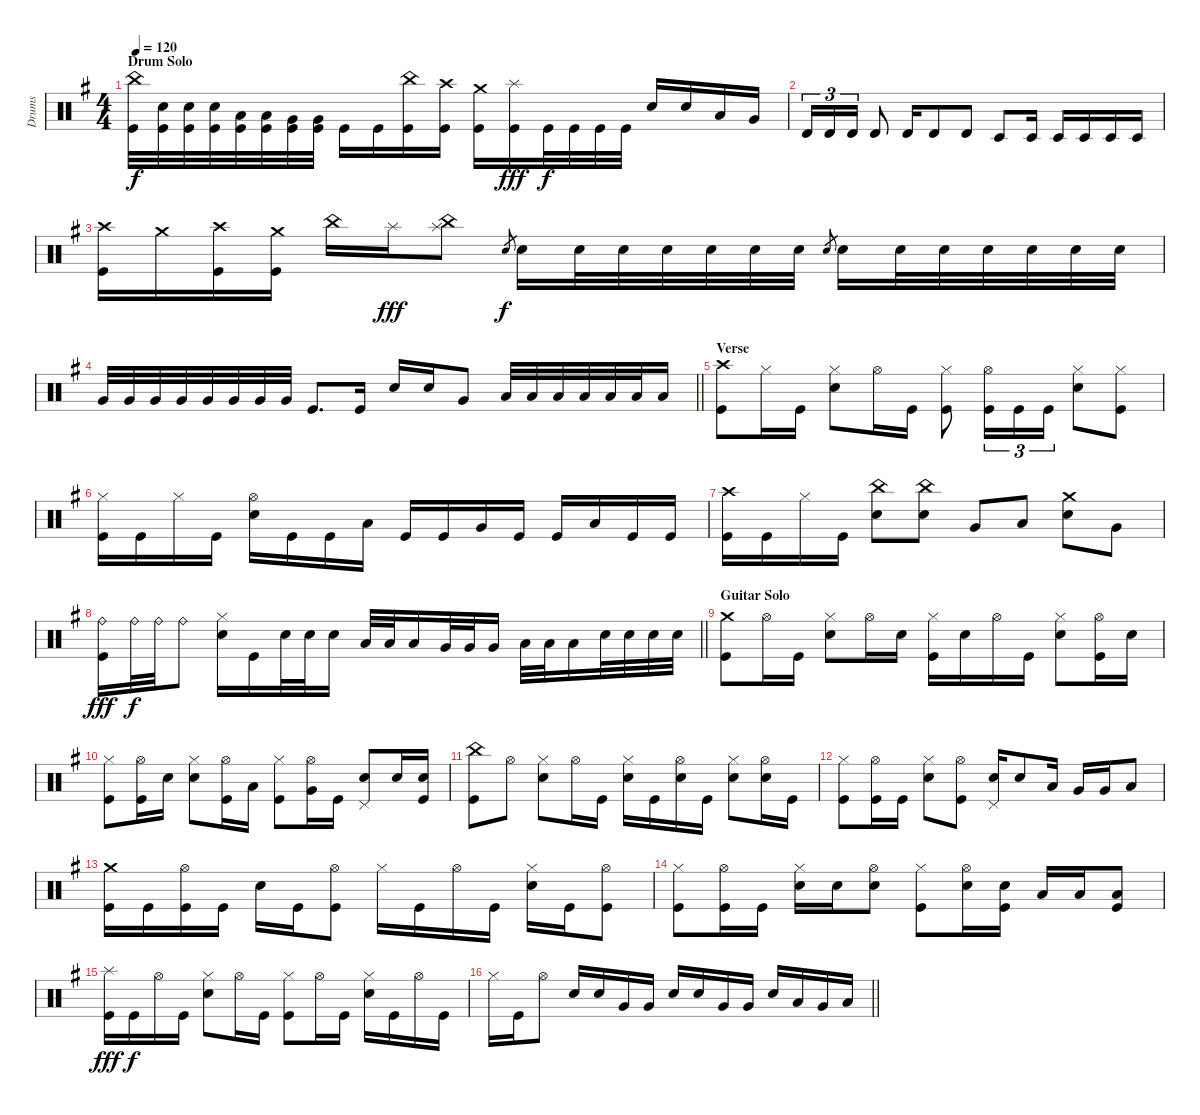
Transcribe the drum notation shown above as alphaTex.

\track ("Drums" "Drums") {instrument percussion}
\staff {score}
\articulation defaults
\ts (4 4)
\section ("" "Drum Solo")
\tempo 120
\clef neutral
\ks eminor
("China (hit)" "Kick (hit)").32{dy f} ("Snare (hit) 2" "Kick (hit)").32 ("Snare (hit) 2" "Kick (hit)").32 ("Snare (hit) 2" "Kick (hit)").32 ("Low Tom (hit)" "Kick (hit)").32 ("Low Tom (hit)" "Kick (hit)").32 ("Very Low Tom (hit)" "Kick (hit)").32 ("Very Low Tom (hit)" "Kick (hit)").32 "Kick (hit)".16 "Kick (hit)".16 ("China (hit)" "Kick (hit)").16 ("Crash high (hit)" "Kick (hit)").16 ("Crash medium (hit)" "Kick (hit)").16 ("Splash (hit)" "Kick (hit)").16{dy fff} "Kick (hit)".32{dy f} "Kick (hit)".32 "Kick (hit)".32 "Kick (hit)".32 "Snare (hit) 2".16 "Snare (hit) 2".16 "Low Tom (hit)".16 "Very Low Tom (hit)".16 |
"Timbale high (hit)".16{tu (3 2)} "Timbale high (hit)".16{tu (3 2)} "Timbale high (hit)".16{tu (3 2)} "Timbale high (hit)".8 "Timbale high (hit)".16 "Timbale high (hit)".8 "Timbale high (hit)".8 "Timbale low (hit)".8 "Timbale low (hit)".16 "Timbale low (hit)".16 "Timbale low (hit)".16 "Timbale low (hit)".16 "Timbale low (hit)".16 |
("Crash high (hit)" "Kick (hit)").16 "Crash medium (hit)".16 ("Crash high (hit)" "Kick (hit)").16 ("Crash medium (hit)" "Kick (hit)").16 "China (hit)".16 "Splash (hit)".16{dy fff} ("China (hit)" "Splash (hit)").8 "Snare (hit) 2".8{gr dy f} "Snare (hit) 2".16 "Snare (hit) 2".32 "Snare (hit) 2".32 "Snare (hit) 2".32 "Snare (hit) 2".32 "Snare (hit) 2".32 "Snare (hit) 2".32 "Snare (hit) 2".8{gr} "Snare (hit) 2".16 "Snare (hit) 2".32 "Snare (hit) 2".32 "Snare (hit) 2".32 "Snare (hit) 2".32 "Snare (hit) 2".32 "Snare (hit) 2".32 |
\barLineRight lightlight "Very Low Tom (hit)".32 "Very Low Tom (hit)".32 "Very Low Tom (hit)".32 "Very Low Tom (hit)".32 "Very Low Tom (hit)".32 "Very Low Tom (hit)".32 "Very Low Tom (hit)".32 "Very Low Tom (hit)".32 "Kick (hit)".8{d} "Kick (hit)".16 "Snare (hit) 2".16 "Snare (hit) 2".16 "Very Low Tom (hit)".8 "Low Floor Tom (hit)".32 "Low Floor Tom (hit)".32 "Low Floor Tom (hit)".32 "Low Floor Tom (hit)".32 "Low Floor Tom (hit)".32 "Low Floor Tom (hit)".32 "Low Floor Tom (hit)".16
|
\section ("" "Verse")
("Crash high (hit)" "Kick (hit)").8 "Hi-Hat (closed)".16 "Kick (hit)".16 ("Hi-Hat (closed)" "Snare (hit) 2").8 "Hi-Hat (open)".16 "Kick (hit)".16 ("Hi-Hat (closed)" "Kick (hit)").8 ("Hi-Hat (open)" "Kick (hit)").16{tu (3 2)} "Kick (hit)".16{tu (3 2)} "Kick (hit)".16{tu (3 2)} ("Hi-Hat (closed)" "Snare (hit) 2").8 ("Hi-Hat (closed)" "Kick (hit)").8 |
("Hi-Hat (closed)" "Kick (hit)").16 "Kick (hit)".16 "Hi-Hat (closed)".16 "Kick (hit)".16 ("Hi-Hat (open)" "Snare (hit) 2").16 "Kick (hit)".16 "Kick (hit)".16 "Low Tom (hit)".16 "Kick (hit)".16 "Kick (hit)".16 "Very Low Tom (hit)".16 "Kick (hit)".16 "Kick (hit)".16 "Low Floor Tom (hit)".16 "Kick (hit)".16 "Kick (hit)".16 |
("Crash high (hit)" "Kick (hit)").16 "Kick (hit)".16 "Hi-Hat (closed)".16 "Kick (hit)".16 ("China (hit)" "Snare (hit) 2").8 ("China (hit)" "Snare (hit) 2").8 "Very Low Tom (hit)".8 "Low Floor Tom (hit)".8 ("Crash medium (hit)" "Snare (hit) 2").8 "Very Low Tom (hit)".8 |
\barLineRight lightlight
("Ride (bell)" "Kick (hit)").16{dy fff} "Ride (bell)".32{dy f} "Ride (bell)".32 "Ride (bell)".8 ("Hi-Hat (closed)" "Snare (hit) 2").16 "Kick (hit)".16 "Snare (hit) 2".32 "Snare (hit) 2".32 "Snare (hit) 2".16 "Low Tom (hit)".32 "Low Tom (hit)".32 "Low Tom (hit)".16 "Very Low Tom (hit)".32 "Very Low Tom (hit)".32 "Very Low Tom (hit)".16 "Low Floor Tom (hit)".32 "Low Floor Tom (hit)".32 "Low Floor Tom (hit)".16 "Snare (hit) 2".32 "Snare (hit) 2".32 "Snare (hit) 2".32 "Snare (hit) 2".32 |
\section ("" "Guitar Solo")
("Crash medium (hit)" "Kick (hit)").8 "Hi-Hat (open)".16 "Kick (hit)".16 ("Hi-Hat (closed)" "Snare (hit) 2").8 "Hi-Hat (open)".16 "Snare (hit) 2".16 ("Hi-Hat (closed)" "Kick (hit)").16 "Snare (hit) 2".16 "Hi-Hat (open)".16 "Kick (hit)".16 ("Hi-Hat (closed)" "Snare (hit) 2").8 ("Hi-Hat (open)" "Kick (hit)").16 "Snare (hit) 2".16 |
("Hi-Hat (closed)" "Kick (hit)").8 ("Hi-Hat (open)" "Kick (hit)").16 "Snare (hit) 2".16 ("Hi-Hat (closed)" "Snare (hit) 2").8 ("Hi-Hat (open)" "Kick (hit)").16 "Low Tom (hit)".16 ("Hi-Hat (closed)" "Kick (hit)").8 ("Hi-Hat (open)" "Very Low Tom (hit)").16 "Kick (hit)".16 ("Snare (hit) 2" "Pedal Hi-Hat (hit)").8 "Snare (hit) 2".16 ("Snare (hit) 2" "Kick (hit)").16 |
("China (hit)" "Kick (hit)").8 "Hi-Hat (open)".8 ("Hi-Hat (closed)" "Snare (hit) 2").8 "Hi-Hat (open)".16 "Kick (hit)".16 ("Hi-Hat (closed)" "Snare (hit) 2").16 "Kick (hit)".16 ("Hi-Hat (open)" "Snare (hit) 2").16 "Kick (hit)".16 ("Hi-Hat (closed)" "Snare (hit) 2").8 ("Hi-Hat (open)" "Snare (hit) 2").16 "Kick (hit)".16 |
("Hi-Hat (closed)" "Kick (hit)").8 ("Hi-Hat (open)" "Kick (hit)").16 "Kick (hit)".16 ("Hi-Hat (closed)" "Snare (hit) 2").8 ("Hi-Hat (open)" "Kick (hit)").8 ("Snare (hit) 2" "Pedal Hi-Hat (hit)").16 "Snare (hit) 2".8 "Low Tom (hit)".16 "Very Low Tom (hit)".16 "Very Low Tom (hit)".16 "Low Floor Tom (hit)".8 |
("Crash medium (hit)" "Kick (hit)").16 "Kick (hit)".16 ("Hi-Hat (open)" "Kick (hit)").16 "Kick (hit)".16 "Snare (hit) 2".16 "Kick (hit)".16 ("Hi-Hat (open)" "Kick (hit)").8 "Hi-Hat (closed)".16 "Kick (hit)".16 "Hi-Hat (open)".16 "Kick (hit)".16 ("Hi-Hat (closed)" "Snare (hit) 2").16 "Kick (hit)".16 ("Hi-Hat (open)" "Kick (hit)").8 |
("Hi-Hat (closed)" "Kick (hit)").8 ("Hi-Hat (open)" "Kick (hit)").16 "Kick (hit)".16 ("Hi-Hat (closed)" "Snare (hit) 2").16 "Snare (hit) 2".16 ("Hi-Hat (open)" "Snare (hit) 2").8 ("Hi-Hat (closed)" "Kick (hit)").8 ("Hi-Hat (open)" "Snare (hit) 2").16 ("Snare (hit) 2" "Kick (hit)").16 "Low Tom (hit)".16 "Low Tom (hit)".16 ("Low Floor Tom (hit)" "Kick (hit)").8 |
("Splash (hit)" "Kick (hit)").16{dy fff} "Kick (hit)".16{dy f} "Hi-Hat (open)".16 "Kick (hit)".16 ("Hi-Hat (closed)" "Snare (hit) 2").8 "Hi-Hat (open)".16 "Kick (hit)".16 ("Hi-Hat (closed)" "Kick (hit)").8 "Hi-Hat (open)".16 "Kick (hit)".16 ("Hi-Hat (closed)" "Snare (hit) 2").16 "Kick (hit)".16 "Hi-Hat (open)".16 "Kick (hit)".16 |
\barLineRight lightlight "Hi-Hat (closed)".16 "Kick (hit)".16 "Hi-Hat (open)".8 "Snare (hit) 2".16 "Snare (hit) 2".16 "Very Low Tom (hit)".16 "Very Low Tom (hit)".16 "Snare (hit) 2".16 "Snare (hit) 2".16 "Very Low Tom (hit)".16 "Very Low Tom (hit)".16 "Snare (hit) 2".16 "Low Tom (hit)".16 "Very Low Tom (hit)".16 "Low Floor Tom (hit)".16
